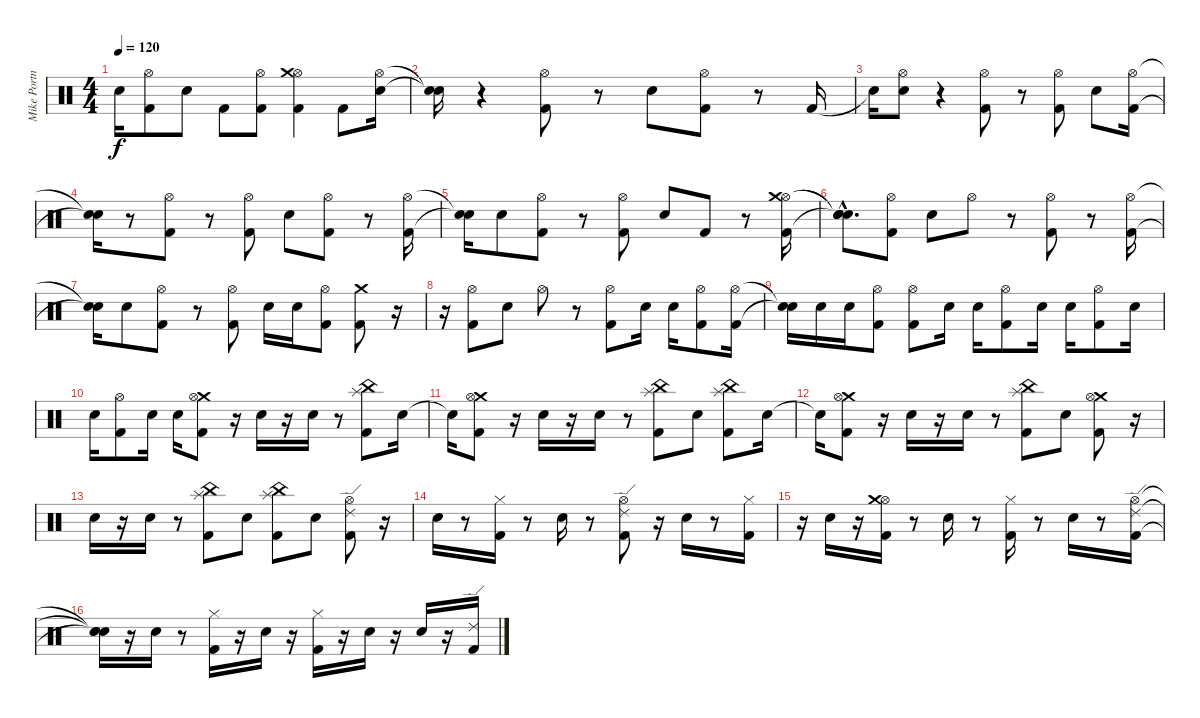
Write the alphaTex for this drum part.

\track ("Mike Portnoy - Batterie" "Mike Portn") {instrument percussion}
\staff {score}
\articulation defaults
\ts (4 4)
\tempo 120
\clef neutral
\ks c "Snare (hit)"{t}.16{dy f}
("Hi-Hat (open)" "Kick (hit) 2").8 "Electric Snare (hit)".8 "Kick (hit) 2".8 ("Hi-Hat (open)" "Kick (hit) 2").8 ("Hi-Hat (open)" "Crash medium (hit)" "Kick (hit) 2").4 "Kick (hit) 2".8 ("Hi-Hat (open)" "Electric Snare (hit)").16 |
("Snare (hit)"{t} "Snare (hit)"{t}).16 r.4 ("Hi-Hat (open)" "Kick (hit) 2").8 r.8 "Electric Snare (hit)".8 ("Hi-Hat (open)" "Kick (hit) 2").8 r.8 "Kick (hit) 2".16 |
"Snare (hit)"{t}.16 ("Hi-Hat (open)" "Electric Snare (hit)").8 r.4 ("Hi-Hat (open)" "Kick (hit) 2").8 r.8 ("Hi-Hat (open)" "Kick (hit) 2").8 "Electric Snare (hit)".8 ("Hi-Hat (open)" "Kick (hit) 2").16 |
("Snare (hit)"{t} "Snare (hit)"{t}).16 r.8 ("Hi-Hat (open)" "Kick (hit) 2").8 r.8 ("Hi-Hat (open)" "Kick (hit) 2").8 "Electric Snare (hit)".8 ("Hi-Hat (open)" "Kick (hit) 2").8 r.8 ("Hi-Hat (open)" "Kick (hit) 2").16 |
("Snare (hit)"{t} "Snare (hit)"{t}).16 "Electric Snare (hit)".8 ("Hi-Hat (open)" "Kick (hit) 2").8 r.8 ("Hi-Hat (open)" "Kick (hit) 2").8 "Electric Snare (hit)".8 "Kick (hit) 2".8 r.8 ("Hi-Hat (open)" "Crash medium (hit)" "Kick (hit) 2").16 |
("Snare (hit)"{t} "Snare (hit)"{hac t} "Snare (hit)"{t}).8{d} ("Hi-Hat (open)" "Kick (hit) 2").8 "Electric Snare (hit)".8 "Hi-Hat (open)".8 r.8 ("Hi-Hat (open)" "Kick (hit) 2").8 r.8 ("Hi-Hat (open)" "Kick (hit) 2").16 |
("Snare (hit)"{t} "Snare (hit)"{t}).16 "Electric Snare (hit)".8 ("Hi-Hat (open)" "Kick (hit) 2").8 r.8 ("Kick (hit) 2" "Hi-Hat (open)").8 "Electric Snare (hit)".16 "Electric Snare (hit)".16 ("Hi-Hat (open)" "Kick (hit) 2").8 ("Crash medium (hit)" "Kick (hit) 2").8 r.16 |
r.16 ("Hi-Hat (open)" "Kick (hit) 2").8 "Electric Snare (hit)".8 "Hi-Hat (open)".8 r.8 ("Hi-Hat (open)" "Kick (hit) 2").8 "Electric Snare (hit)".16 "Electric Snare (hit)".16 ("Hi-Hat (open)" "Kick (hit) 2").8 ("Hi-Hat (open)" "Kick (hit) 2").16 |
("Snare (hit)"{t} "Snare (hit)"{t}).16 "Electric Snare (hit)".16 "Electric Snare (hit)".16 ("Hi-Hat (open)" "Kick (hit) 2").8 ("Hi-Hat (open)" "Kick (hit) 2").8 "Electric Snare (hit)".16 "Electric Snare (hit)".16 ("Hi-Hat (open)" "Kick (hit) 2").8 "Electric Snare (hit)".16 "Electric Snare (hit)".16 ("Hi-Hat (open)" "Kick (hit) 2").8 "Electric Snare (hit)".16 |
"Electric Snare (hit)".16 ("Hi-Hat (open)" "Kick (hit) 2").8 "Electric Snare (hit)".16 "Electric Snare (hit)".16 ("Crash medium (hit)" "Kick (hit) 2" "Hi-Hat (open)").8 r.16 "Electric Snare (hit)".16 r.16 "Electric Snare (hit)".16 r.8 ("China (hit)" "Splash (hit)" "Kick (hit) 2").8 "Electric Snare (hit)".16 |
"Snare (hit)"{t}.16 ("Crash medium (hit)" "Hi-Hat (open)" "Kick (hit) 2").8 r.16 "Electric Snare (hit)".16 r.16 "Electric Snare (hit)".16 r.8 ("Splash (hit)" "China (hit)" "Kick (hit) 2").8 "Electric Snare (hit)".8 ("Splash (hit)" "China (hit)" "Kick (hit) 2").8 "Electric Snare (hit)".16 |
"Snare (hit)"{t}.16 ("Crash medium (hit)" "Kick (hit) 2" "Hi-Hat (open)").8 r.16 "Electric Snare (hit)".16 r.16 "Electric Snare (hit)".16 r.8 ("China (hit)" "Splash (hit)" "Kick (hit) 2").8 "Electric Snare (hit)".8 ("Crash medium (hit)" "Hi-Hat (open)" "Kick (hit) 2").8 r.16 |
"Electric Snare (hit)".16 r.16 "Electric Snare (hit)".16 r.8 ("Splash (hit)" "China (hit)" "Kick (hit) 2").8 "Electric Snare (hit)".8 ("Splash (hit)" "China (hit)" "Kick (hit) 2").8 "Electric Snare (hit)".8 ("Ride (edge) 2" "Hi-Hat (open)" "Kick (hit) 2").8 r.16 |
"Electric Snare (hit)".16 r.8 ("Hi-Hat (closed)" "Kick (hit) 2").16 r.8 "Electric Snare (hit)".16 r.8 ("Ride (edge) 2" "Hi-Hat (open)" "Kick (hit) 2").8 r.16 "Electric Snare (hit)".16 r.8 ("Hi-Hat (closed)" "Kick (hit) 2").16 |
r.16 "Electric Snare (hit)".16 r.16 ("Kick (hit) 2" "Hi-Hat (open)" "Crash medium (hit)").16 r.8 "Electric Snare (hit)".16 r.8 ("Hi-Hat (closed)" "Kick (hit) 2").16 r.8 "Electric Snare (hit)".16 r.8 ("Ride (edge) 2" "Hi-Hat (open)" "Kick (hit) 2").16 |
("Snare (hit)"{t} "Snare (hit)"{t} "Snare (hit)"{t}).16 r.16 "Electric Snare (hit)".16 r.8 ("Hi-Hat (closed)" "Kick (hit) 2").16 r.16 "Electric Snare (hit)".16 r.16 ("Hi-Hat (closed)" "Kick (hit) 2").16 r.16 "Electric Snare (hit)".16 r.16 "Electric Snare (hit)".16 r.16 ("Ride (edge) 2" "Kick (hit) 2").16
